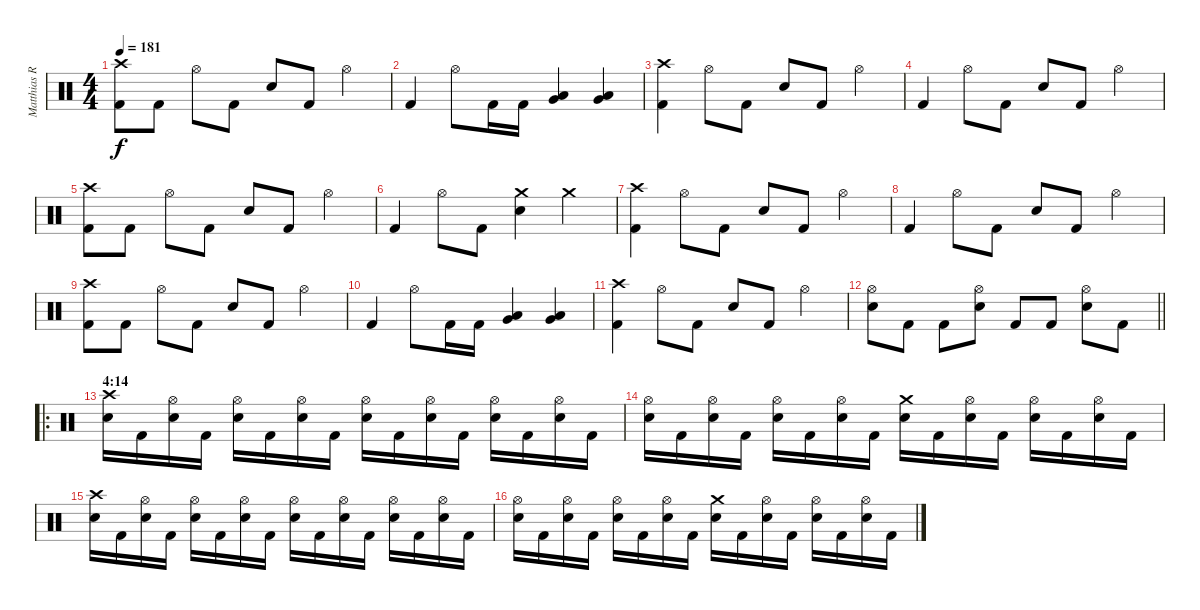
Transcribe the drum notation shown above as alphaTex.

\track ("Matthias R." "Matthias R") {instrument percussion}
\staff {score}
\articulation defaults
\ts (4 4)
\tempo 181
\clef neutral
\ks c
("Kick (hit) 2" "Crash high (hit)").8{dy f} "Kick (hit) 2".8 "Hi-Hat (open)".8 "Kick (hit) 2".8 "Snare (hit) 2".8 "Kick (hit) 2".8 "Hi-Hat (open)".4 |
"Kick (hit) 2".4 "Hi-Hat (open)".8 "Kick (hit) 2".16 "Kick (hit) 2".16 ("Low Tom (hit)" "Very Low Tom (hit)").4 ("Low Tom (hit)" "Very Low Tom (hit)").4 |
("Kick (hit) 2" "Crash high (hit)").4 "Hi-Hat (open)".8 "Kick (hit) 2".8 "Snare (hit) 2".8 "Kick (hit) 2".8 "Hi-Hat (open)".4 |
"Kick (hit) 2".4 "Hi-Hat (open)".8 "Kick (hit) 2".8 "Snare (hit) 2".8 "Kick (hit) 2".8 "Hi-Hat (open)".4 |
("Kick (hit) 2" "Crash high (hit)").8 "Kick (hit) 2".8 "Hi-Hat (open)".8 "Kick (hit) 2".8 "Snare (hit) 2".8 "Kick (hit) 2".8 "Hi-Hat (open)".4 |
"Kick (hit) 2".4 "Hi-Hat (open)".8 "Kick (hit) 2".8 ("Snare (hit) 2" "Crash medium (hit)").4 "Crash medium (hit)".4 |
("Kick (hit) 2" "Crash high (hit)").4 "Hi-Hat (open)".8 "Kick (hit) 2".8 "Snare (hit) 2".8 "Kick (hit) 2".8 "Hi-Hat (open)".4 |
"Kick (hit) 2".4 "Hi-Hat (open)".8 "Kick (hit) 2".8 "Snare (hit) 2".8 "Kick (hit) 2".8 "Hi-Hat (open)".4 |
("Kick (hit) 2" "Crash high (hit)").8 "Kick (hit) 2".8 "Hi-Hat (open)".8 "Kick (hit) 2".8 "Snare (hit) 2".8 "Kick (hit) 2".8 "Hi-Hat (open)".4 |
"Kick (hit) 2".4 "Hi-Hat (open)".8 "Kick (hit) 2".16 "Kick (hit) 2".16 ("Low Tom (hit)" "Very Low Tom (hit)").4 ("Low Tom (hit)" "Very Low Tom (hit)").4 |
("Kick (hit) 2" "Crash high (hit)").4 "Hi-Hat (open)".8 "Kick (hit) 2".8 "Snare (hit) 2".8 "Kick (hit) 2".8 "Hi-Hat (open)".4 |
\barLineRight lightlight
("Snare (hit) 2" "Hi-Hat (open)").8 "Kick (hit) 2".8 "Kick (hit) 2".8 ("Snare (hit) 2" "Hi-Hat (open)").8 "Kick (hit) 2".8 "Kick (hit) 2".8 ("Snare (hit) 2" "Hi-Hat (open)").8 "Kick (hit) 2".8 |
\ro
\section ("" "4:14")
("Snare (hit) 2" "Crash high (hit)").16 "Kick (hit) 2".16 ("Snare (hit) 2" "Hi-Hat (open)").16 "Kick (hit) 2".16 ("Snare (hit) 2" "Hi-Hat (open)").16 "Kick (hit) 2".16 ("Snare (hit) 2" "Hi-Hat (open)").16 "Kick (hit) 2".16 ("Snare (hit) 2" "Hi-Hat (open)").16 "Kick (hit) 2".16 ("Snare (hit) 2" "Hi-Hat (open)").16 "Kick (hit) 2".16 ("Snare (hit) 2" "Hi-Hat (open)").16 "Kick (hit) 2".16 ("Snare (hit) 2" "Hi-Hat (open)").16 "Kick (hit) 2".16 |
("Snare (hit) 2" "Hi-Hat (open)").16 "Kick (hit) 2".16 ("Snare (hit) 2" "Hi-Hat (open)").16 "Kick (hit) 2".16 ("Snare (hit) 2" "Hi-Hat (open)").16 "Kick (hit) 2".16 ("Snare (hit) 2" "Hi-Hat (open)").16 "Kick (hit) 2".16 ("Snare (hit) 2" "Crash medium (hit)").16 "Kick (hit) 2".16 ("Snare (hit) 2" "Hi-Hat (open)").16 "Kick (hit) 2".16 ("Snare (hit) 2" "Hi-Hat (open)").16 "Kick (hit) 2".16 ("Snare (hit) 2" "Hi-Hat (open)").16 "Kick (hit) 2".16 |
("Snare (hit) 2" "Crash high (hit)").16 "Kick (hit) 2".16 ("Snare (hit) 2" "Hi-Hat (open)").16 "Kick (hit) 2".16 ("Snare (hit) 2" "Hi-Hat (open)").16 "Kick (hit) 2".16 ("Snare (hit) 2" "Hi-Hat (open)").16 "Kick (hit) 2".16 ("Snare (hit) 2" "Hi-Hat (open)").16 "Kick (hit) 2".16 ("Snare (hit) 2" "Hi-Hat (open)").16 "Kick (hit) 2".16 ("Snare (hit) 2" "Hi-Hat (open)").16 "Kick (hit) 2".16 ("Snare (hit) 2" "Hi-Hat (open)").16 "Kick (hit) 2".16 |
("Snare (hit) 2" "Hi-Hat (open)").16 "Kick (hit) 2".16 ("Snare (hit) 2" "Hi-Hat (open)").16 "Kick (hit) 2".16 ("Snare (hit) 2" "Hi-Hat (open)").16 "Kick (hit) 2".16 ("Snare (hit) 2" "Hi-Hat (open)").16 "Kick (hit) 2".16 ("Snare (hit) 2" "Crash medium (hit)").16 "Kick (hit) 2".16 ("Snare (hit) 2" "Hi-Hat (open)").16 "Kick (hit) 2".16 ("Snare (hit) 2" "Hi-Hat (open)").16 "Kick (hit) 2".16 ("Snare (hit) 2" "Hi-Hat (open)").16 "Kick (hit) 2".16
